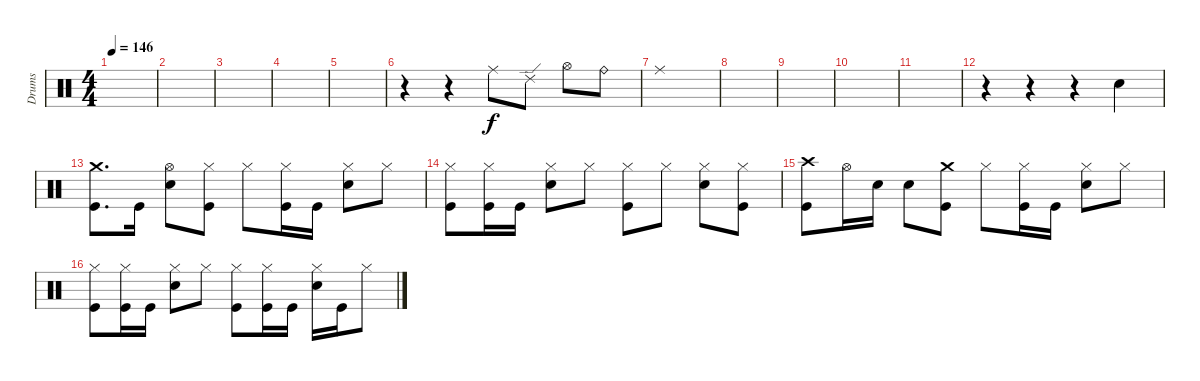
\track ("Drums" "Drums") {instrument percussion}
\staff {score}
\articulation defaults
\ts (4 4)
\tempo 146
\clef neutral
\ks c
|
|
|
|
|
r.4 r.4 "Ride (middle)".8 "Ride (edge) 2".8 "Hi-Hat (open)".8 "Ride (bell)".8 |
"Ride (middle)".1 |
|
|
|
|
r.4 r.4 r.4 "Electric Snare (hit)".4 |
("Crash medium (hit)" "Kick (hit)").8{d} "Kick (hit)".16 ("Hi-Hat (open)" "Electric Snare (hit)").8 ("Hi-Hat (closed)" "Kick (hit)").8 "Hi-Hat (closed)".8 ("Hi-Hat (closed)" "Kick (hit)").16 "Kick (hit)".16 ("Hi-Hat (closed)" "Electric Snare (hit)").8 "Hi-Hat (closed)".8 |
("Hi-Hat (closed)" "Kick (hit)").8 ("Hi-Hat (closed)" "Kick (hit)").16 "Kick (hit)".16 ("Hi-Hat (closed)" "Electric Snare (hit)").8 "Hi-Hat (closed)".8 ("Hi-Hat (closed)" "Kick (hit)").8 "Hi-Hat (closed)".8 ("Hi-Hat (closed)" "Electric Snare (hit)").8 ("Hi-Hat (closed)" "Kick (hit)").8 |
("Crash high (hit)" "Kick (hit)").8 "Hi-Hat (open)".16 "Electric Snare (hit)".16 "Electric Snare (hit)".8 ("Crash medium (hit)" "Kick (hit)").8 "Hi-Hat (closed)".8 ("Hi-Hat (closed)" "Kick (hit)").16 "Kick (hit)".16 ("Hi-Hat (closed)" "Electric Snare (hit)").8 "Hi-Hat (closed)".8 |
("Hi-Hat (closed)" "Kick (hit)").8 ("Hi-Hat (closed)" "Kick (hit)").16 "Kick (hit)".16 ("Hi-Hat (closed)" "Electric Snare (hit)").8 "Hi-Hat (closed)".8 ("Hi-Hat (closed)" "Kick (hit)").8 ("Hi-Hat (closed)" "Kick (hit)").16 "Kick (hit)".16 ("Hi-Hat (closed)" "Electric Snare (hit)").16 "Kick (hit)".16 "Hi-Hat (closed)".8
